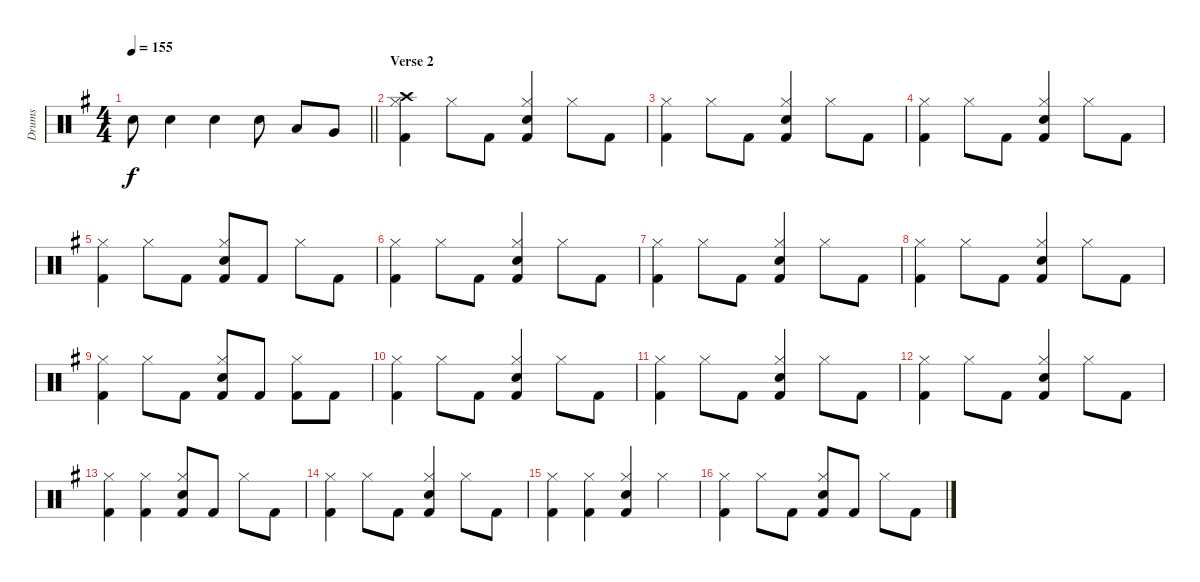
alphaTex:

\track ("Drums" "Drums") {instrument percussion}
\staff {score}
\articulation defaults
\ts (4 4)
\tempo 155
\clef neutral
\barLineRight lightlight
\ks g "Snare (hit) 2".8{dy f} "Snare (hit) 2".4 "Snare (hit) 2".4 "Snare (hit) 2".8 "Low Tom (hit)".8 "Very Low Tom (hit)".8
|
\section ("" "Verse 2")
("Crash high (hit)" "Hi-Hat (closed)" "Kick (hit) 2").4 "Hi-Hat (closed)".8 "Kick (hit) 2".8 ("Hi-Hat (closed)" "Snare (hit) 2" "Kick (hit) 2").4 "Hi-Hat (closed)".8 "Kick (hit) 2".8 |
("Hi-Hat (closed)" "Kick (hit) 2").4 "Hi-Hat (closed)".8 "Kick (hit) 2".8 ("Hi-Hat (closed)" "Snare (hit) 2" "Kick (hit) 2").4 "Hi-Hat (closed)".8 "Kick (hit) 2".8 |
("Hi-Hat (closed)" "Kick (hit) 2").4 "Hi-Hat (closed)".8 "Kick (hit) 2".8 ("Hi-Hat (closed)" "Snare (hit) 2" "Kick (hit) 2").4 "Hi-Hat (closed)".8 "Kick (hit) 2".8 |
("Hi-Hat (closed)" "Kick (hit) 2").4 "Hi-Hat (closed)".8 "Kick (hit) 2".8 ("Hi-Hat (closed)" "Snare (hit) 2" "Kick (hit) 2").8 "Kick (hit) 2".8 "Hi-Hat (closed)".8 "Kick (hit) 2".8 |
("Hi-Hat (closed)" "Kick (hit) 2").4 "Hi-Hat (closed)".8 "Kick (hit) 2".8 ("Hi-Hat (closed)" "Snare (hit) 2" "Kick (hit) 2").4 "Hi-Hat (closed)".8 "Kick (hit) 2".8 |
("Hi-Hat (closed)" "Kick (hit) 2").4 "Hi-Hat (closed)".8 "Kick (hit) 2".8 ("Hi-Hat (closed)" "Snare (hit) 2" "Kick (hit) 2").4 "Hi-Hat (closed)".8 "Kick (hit) 2".8 |
("Hi-Hat (closed)" "Kick (hit) 2").4 "Hi-Hat (closed)".8 "Kick (hit) 2".8 ("Hi-Hat (closed)" "Snare (hit) 2" "Kick (hit) 2").4 "Hi-Hat (closed)".8 "Kick (hit) 2".8 |
("Hi-Hat (closed)" "Kick (hit) 2").4 "Hi-Hat (closed)".8 "Kick (hit) 2".8 ("Hi-Hat (closed)" "Snare (hit) 2" "Kick (hit) 2").8 "Kick (hit) 2".8 ("Hi-Hat (closed)" "Kick (hit) 2").8 "Kick (hit) 2".8 |
("Hi-Hat (closed)" "Kick (hit) 2").4 "Hi-Hat (closed)".8 "Kick (hit) 2".8 ("Hi-Hat (closed)" "Snare (hit) 2" "Kick (hit) 2").4 "Hi-Hat (closed)".8 "Kick (hit) 2".8 |
("Hi-Hat (closed)" "Kick (hit) 2").4 "Hi-Hat (closed)".8 "Kick (hit) 2".8 ("Hi-Hat (closed)" "Snare (hit) 2" "Kick (hit) 2").4 "Hi-Hat (closed)".8 "Kick (hit) 2".8 |
("Hi-Hat (closed)" "Kick (hit) 2").4 "Hi-Hat (closed)".8 "Kick (hit) 2".8 ("Hi-Hat (closed)" "Snare (hit) 2" "Kick (hit) 2").4 "Hi-Hat (closed)".8 "Kick (hit) 2".8 |
("Hi-Hat (closed)" "Kick (hit) 2").4 ("Hi-Hat (closed)" "Kick (hit) 2").4 ("Hi-Hat (closed)" "Snare (hit) 2" "Kick (hit) 2").8 "Kick (hit) 2".8 "Hi-Hat (closed)".8 "Kick (hit) 2".8 |
("Hi-Hat (closed)" "Kick (hit) 2").4 "Hi-Hat (closed)".8 "Kick (hit) 2".8 ("Hi-Hat (closed)" "Snare (hit) 2" "Kick (hit) 2").4 "Hi-Hat (closed)".8 "Kick (hit) 2".8 |
("Hi-Hat (closed)" "Kick (hit) 2").4 ("Hi-Hat (closed)" "Kick (hit) 2").4 ("Hi-Hat (closed)" "Snare (hit) 2" "Kick (hit) 2").4 "Hi-Hat (closed)".4 |
("Hi-Hat (closed)" "Kick (hit) 2").4 "Hi-Hat (closed)".8 "Kick (hit) 2".8 ("Hi-Hat (closed)" "Snare (hit) 2" "Kick (hit) 2").8 "Kick (hit) 2".8 "Hi-Hat (closed)".8 "Kick (hit) 2".8
